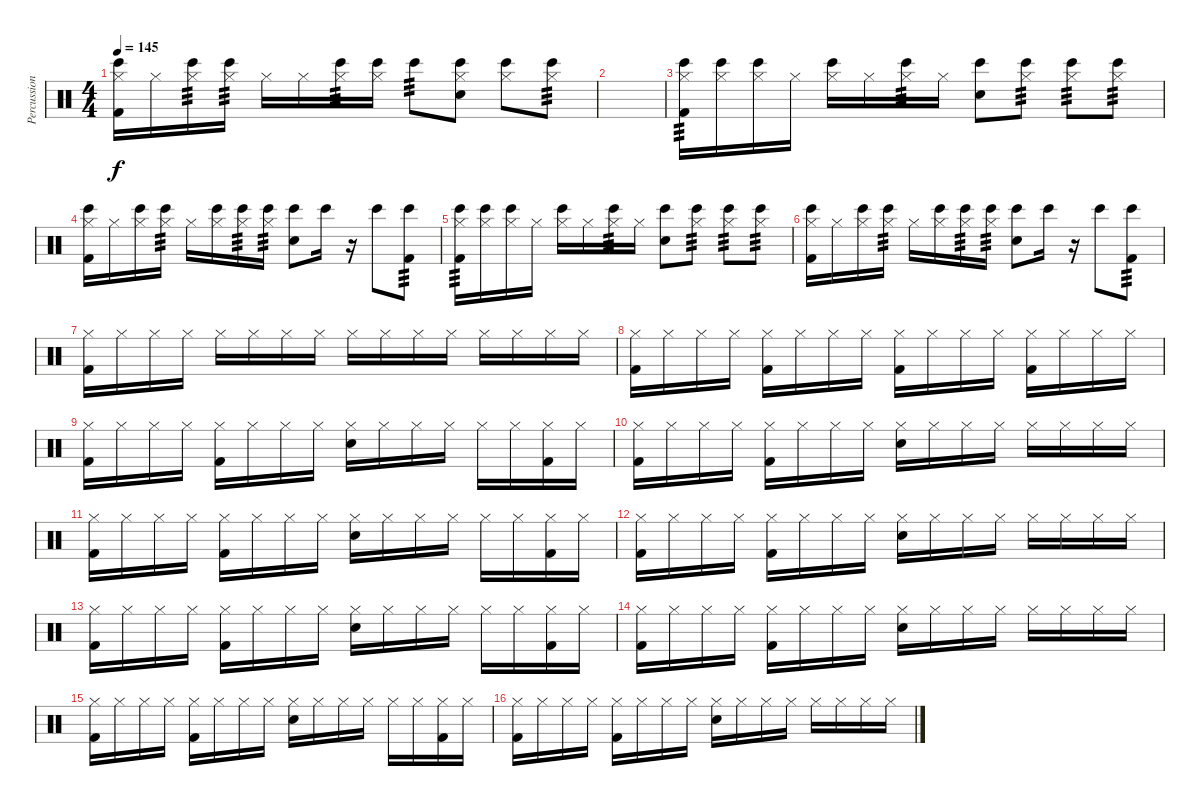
\track ("Percussion" "Percussion") {instrument percussion}
\staff {score}
\articulation defaults
\ts (4 4)
\tempo 145
\clef neutral
\ks c
("Hi-Hat (closed)" "Bongo High (hit)" "Kick (hit) 2").16{dy f} "Hi-Hat (closed)".16 ("Hi-Hat (closed)" "Bongo High (hit)").16{tp 3} ("Hi-Hat (closed)" "Bongo High (hit)").16{tp 3} "Hi-Hat (closed)".16 "Hi-Hat (closed)".16 ("Hi-Hat (closed)" "Bongo High (hit)").16{tp 3} ("Hi-Hat (closed)" "Bongo High (hit)").16 "Bongo High (hit)".8{tp 3} ("Hi-Hat (closed)" "Hand Clap (hit)" "Bongo High (hit)").8 ("Hi-Hat (closed)" "Bongo High (hit)").8 ("Hi-Hat (closed)" "Bongo High (hit)").8{tp 3} |
|
("Hi-Hat (closed)" "Bongo High (hit)" "Kick (hit) 2").16{tp 3} ("Hi-Hat (closed)" "Bongo High (hit)").16 ("Hi-Hat (closed)" "Bongo High (hit)").16 "Hi-Hat (closed)".16 ("Hi-Hat (closed)" "Bongo High (hit)").16 "Hi-Hat (closed)".16 ("Hi-Hat (closed)" "Bongo High (hit)").16{tp 3} "Hi-Hat (closed)".16 ("Hand Clap (hit)" "Bongo High (hit)").8 ("Hi-Hat (closed)" "Bongo High (hit)").8{tp 3} ("Hi-Hat (closed)" "Bongo High (hit)").8{tp 3} ("Hi-Hat (closed)" "Bongo High (hit)").8{tp 3} |
("Hi-Hat (closed)" "Bongo High (hit)" "Kick (hit) 2").16 "Hi-Hat (closed)".16 ("Hi-Hat (closed)" "Bongo High (hit)").16 ("Hi-Hat (closed)" "Bongo High (hit)").16{tp 3} "Hi-Hat (closed)".16 ("Hi-Hat (closed)" "Bongo High (hit)").16 ("Hi-Hat (closed)" "Bongo High (hit)").16{tp 3} ("Hi-Hat (closed)" "Bongo High (hit)").16{tp 3} ("Hand Clap (hit)" "Bongo High (hit)").8 "Bongo High (hit)".16 r.16 "Bongo High (hit)".8 ("Bongo High (hit)" "Kick (hit) 2").8{tp 3} |
("Hi-Hat (closed)" "Bongo High (hit)" "Kick (hit) 2").16{tp 3} ("Hi-Hat (closed)" "Bongo High (hit)").16 ("Hi-Hat (closed)" "Bongo High (hit)").16 "Hi-Hat (closed)".16 ("Hi-Hat (closed)" "Bongo High (hit)").16 "Hi-Hat (closed)".16 ("Hi-Hat (closed)" "Bongo High (hit)").16{tp 3} "Hi-Hat (closed)".16 ("Hand Clap (hit)" "Bongo High (hit)").8 ("Hi-Hat (closed)" "Bongo High (hit)").8{tp 3} ("Hi-Hat (closed)" "Bongo High (hit)").8{tp 3} ("Hi-Hat (closed)" "Bongo High (hit)").8{tp 3} |
("Hi-Hat (closed)" "Bongo High (hit)" "Kick (hit) 2").16 "Hi-Hat (closed)".16 ("Hi-Hat (closed)" "Bongo High (hit)").16 ("Hi-Hat (closed)" "Bongo High (hit)").16{tp 3} "Hi-Hat (closed)".16 ("Hi-Hat (closed)" "Bongo High (hit)").16 ("Hi-Hat (closed)" "Bongo High (hit)").16{tp 3} ("Hi-Hat (closed)" "Bongo High (hit)").16{tp 3} ("Hand Clap (hit)" "Bongo High (hit)").8 "Bongo High (hit)".16 r.16 "Bongo High (hit)".8 ("Bongo High (hit)" "Kick (hit) 2").8{tp 3} |
("Hi-Hat (closed)" "Kick (hit) 2").16 "Hi-Hat (closed)".16 "Hi-Hat (closed)".16 "Hi-Hat (closed)".16 "Hi-Hat (closed)".16 "Hi-Hat (closed)".16 "Hi-Hat (closed)".16 "Hi-Hat (closed)".16 "Hi-Hat (closed)".16 "Hi-Hat (closed)".16 "Hi-Hat (closed)".16 "Hi-Hat (closed)".16 "Hi-Hat (closed)".16 "Hi-Hat (closed)".16 "Hi-Hat (closed)".16 "Hi-Hat (closed)".16 |
("Hi-Hat (closed)" "Kick (hit) 2").16 "Hi-Hat (closed)".16 "Hi-Hat (closed)".16 "Hi-Hat (closed)".16 ("Hi-Hat (closed)" "Kick (hit) 2").16 "Hi-Hat (closed)".16 "Hi-Hat (closed)".16 "Hi-Hat (closed)".16 ("Hi-Hat (closed)" "Kick (hit) 2").16 "Hi-Hat (closed)".16 "Hi-Hat (closed)".16 "Hi-Hat (closed)".16 ("Hi-Hat (closed)" "Kick (hit) 2").16 "Hi-Hat (closed)".16 "Hi-Hat (closed)".16 "Hi-Hat (closed)".16 |
("Hi-Hat (closed)" "Kick (hit) 2").16 "Hi-Hat (closed)".16 "Hi-Hat (closed)".16 "Hi-Hat (closed)".16 ("Hi-Hat (closed)" "Kick (hit) 2").16 "Hi-Hat (closed)".16 "Hi-Hat (closed)".16 "Hi-Hat (closed)".16 ("Hi-Hat (closed)" "Hand Clap (hit)").16 "Hi-Hat (closed)".16 "Hi-Hat (closed)".16 "Hi-Hat (closed)".16 "Hi-Hat (closed)".16 "Hi-Hat (closed)".16 ("Hi-Hat (closed)" "Kick (hit) 2").16 "Hi-Hat (closed)".16 |
("Hi-Hat (closed)" "Kick (hit) 2").16 "Hi-Hat (closed)".16 "Hi-Hat (closed)".16 "Hi-Hat (closed)".16 ("Hi-Hat (closed)" "Kick (hit) 2").16 "Hi-Hat (closed)".16 "Hi-Hat (closed)".16 "Hi-Hat (closed)".16 ("Hi-Hat (closed)" "Hand Clap (hit)").16 "Hi-Hat (closed)".16 "Hi-Hat (closed)".16 "Hi-Hat (closed)".16 "Hi-Hat (closed)".16 "Hi-Hat (closed)".16 "Hi-Hat (closed)".16 "Hi-Hat (closed)".16 |
("Hi-Hat (closed)" "Kick (hit) 2").16 "Hi-Hat (closed)".16 "Hi-Hat (closed)".16 "Hi-Hat (closed)".16 ("Hi-Hat (closed)" "Kick (hit) 2").16 "Hi-Hat (closed)".16 "Hi-Hat (closed)".16 "Hi-Hat (closed)".16 ("Hi-Hat (closed)" "Hand Clap (hit)").16 "Hi-Hat (closed)".16 "Hi-Hat (closed)".16 "Hi-Hat (closed)".16 "Hi-Hat (closed)".16 "Hi-Hat (closed)".16 ("Hi-Hat (closed)" "Kick (hit) 2").16 "Hi-Hat (closed)".16 |
("Hi-Hat (closed)" "Kick (hit) 2").16 "Hi-Hat (closed)".16 "Hi-Hat (closed)".16 "Hi-Hat (closed)".16 ("Hi-Hat (closed)" "Kick (hit) 2").16 "Hi-Hat (closed)".16 "Hi-Hat (closed)".16 "Hi-Hat (closed)".16 ("Hi-Hat (closed)" "Hand Clap (hit)").16 "Hi-Hat (closed)".16 "Hi-Hat (closed)".16 "Hi-Hat (closed)".16 "Hi-Hat (closed)".16 "Hi-Hat (closed)".16 "Hi-Hat (closed)".16 "Hi-Hat (closed)".16 |
("Hi-Hat (closed)" "Kick (hit) 2").16 "Hi-Hat (closed)".16 "Hi-Hat (closed)".16 "Hi-Hat (closed)".16 ("Hi-Hat (closed)" "Kick (hit) 2").16 "Hi-Hat (closed)".16 "Hi-Hat (closed)".16 "Hi-Hat (closed)".16 ("Hi-Hat (closed)" "Hand Clap (hit)").16 "Hi-Hat (closed)".16 "Hi-Hat (closed)".16 "Hi-Hat (closed)".16 "Hi-Hat (closed)".16 "Hi-Hat (closed)".16 ("Hi-Hat (closed)" "Kick (hit) 2").16 "Hi-Hat (closed)".16 |
("Hi-Hat (closed)" "Kick (hit) 2").16 "Hi-Hat (closed)".16 "Hi-Hat (closed)".16 "Hi-Hat (closed)".16 ("Hi-Hat (closed)" "Kick (hit) 2").16 "Hi-Hat (closed)".16 "Hi-Hat (closed)".16 "Hi-Hat (closed)".16 ("Hi-Hat (closed)" "Hand Clap (hit)").16 "Hi-Hat (closed)".16 "Hi-Hat (closed)".16 "Hi-Hat (closed)".16 "Hi-Hat (closed)".16 "Hi-Hat (closed)".16 "Hi-Hat (closed)".16 "Hi-Hat (closed)".16 |
("Hi-Hat (closed)" "Kick (hit) 2").16 "Hi-Hat (closed)".16 "Hi-Hat (closed)".16 "Hi-Hat (closed)".16 ("Hi-Hat (closed)" "Kick (hit) 2").16 "Hi-Hat (closed)".16 "Hi-Hat (closed)".16 "Hi-Hat (closed)".16 ("Hi-Hat (closed)" "Hand Clap (hit)").16 "Hi-Hat (closed)".16 "Hi-Hat (closed)".16 "Hi-Hat (closed)".16 "Hi-Hat (closed)".16 "Hi-Hat (closed)".16 ("Hi-Hat (closed)" "Kick (hit) 2").16 "Hi-Hat (closed)".16 |
("Hi-Hat (closed)" "Kick (hit) 2").16 "Hi-Hat (closed)".16 "Hi-Hat (closed)".16 "Hi-Hat (closed)".16 ("Hi-Hat (closed)" "Kick (hit) 2").16 "Hi-Hat (closed)".16 "Hi-Hat (closed)".16 "Hi-Hat (closed)".16 ("Hi-Hat (closed)" "Hand Clap (hit)").16 "Hi-Hat (closed)".16 "Hi-Hat (closed)".16 "Hi-Hat (closed)".16 "Hi-Hat (closed)".16 "Hi-Hat (closed)".16 "Hi-Hat (closed)".16 "Hi-Hat (closed)".16
